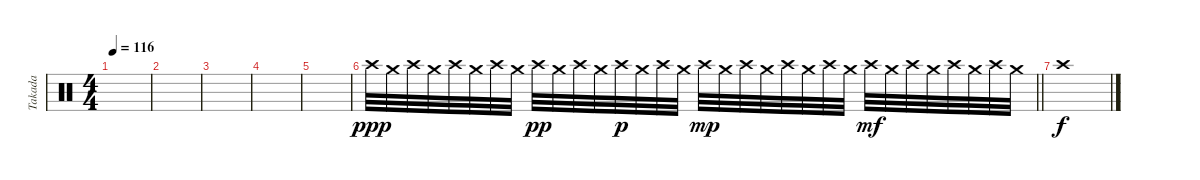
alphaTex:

\track ("Takada" "Takada") {instrument percussion}
\staff {score}
\articulation defaults
\ts (4 4)
\tempo 116
\clef neutral
\ks c
|
|
|
|
|
\barLineRight lightlight "Crash high (hit)".32{dy ppp} "Crash medium (hit)".32 "Crash high (hit)".32 "Crash medium (hit)".32 "Crash high (hit)".32 "Crash medium (hit)".32 "Crash high (hit)".32 "Crash medium (hit)".32 "Crash high (hit)".32{dy pp} "Crash medium (hit)".32 "Crash high (hit)".32 "Crash medium (hit)".32 "Crash high (hit)".32{dy p} "Crash medium (hit)".32 "Crash high (hit)".32 "Crash medium (hit)".32 "Crash high (hit)".32{dy mp} "Crash medium (hit)".32 "Crash high (hit)".32 "Crash medium (hit)".32 "Crash high (hit)".32 "Crash medium (hit)".32 "Crash high (hit)".32 "Crash medium (hit)".32 "Crash high (hit)".32{dy mf} "Crash medium (hit)".32 "Crash high (hit)".32 "Crash medium (hit)".32 "Crash high (hit)".32 "Crash medium (hit)".32 "Crash high (hit)".32 "Crash medium (hit)".32
|
\section ("" "")
"Crash high (hit)".1{dy f}
